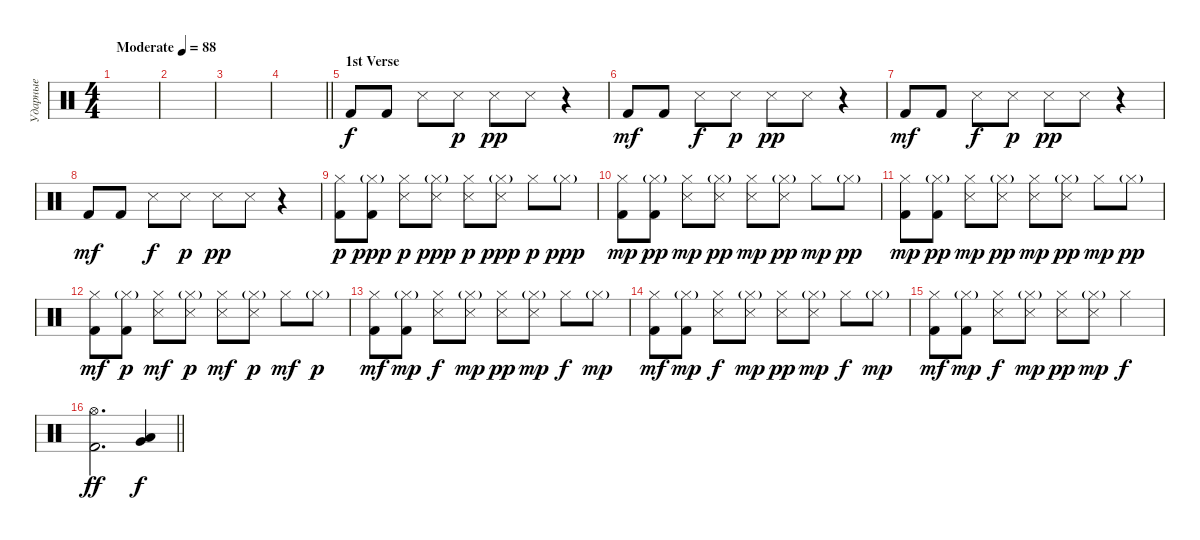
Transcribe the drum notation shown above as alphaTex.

\track ("Ударные" "Ударные") {instrument percussion}
\staff {score}
\articulation defaults
\ts (4 4)
\tempo (88 "Moderate")
\clef neutral
\ks c
|
|
|
\barLineRight lightlight
|
\section ("" "1st Verse")
"Kick (hit) 2".8 "Kick (hit) 2".8 "Snare (side stick) 3".8{dy f} "Snare (side stick) 3".8{dy p} "Snare (side stick) 3".8{dy pp} "Snare (side stick) 3".8 r.4 |
"Kick (hit) 2".8{dy mf} "Kick (hit) 2".8 "Snare (side stick) 3".8{dy f} "Snare (side stick) 3".8{dy p} "Snare (side stick) 3".8{dy pp} "Snare (side stick) 3".8 r.4 |
"Kick (hit) 2".8{dy mf} "Kick (hit) 2".8 "Snare (side stick) 3".8{dy f} "Snare (side stick) 3".8{dy p} "Snare (side stick) 3".8{dy pp} "Snare (side stick) 3".8 r.4 |
"Kick (hit) 2".8{dy mf} "Kick (hit) 2".8 "Snare (side stick) 3".8{dy f} "Snare (side stick) 3".8{dy p} "Snare (side stick) 3".8{dy pp} "Snare (side stick) 3".8 r.4 |
("Kick (hit) 2" "Hi-Hat (closed)").8{dy p} ("Kick (hit) 2" "Hi-Hat (closed)"{g}).8{dy ppp} ("Snare (side stick) 3" "Hi-Hat (closed)").8{dy p} ("Snare (side stick) 3" "Hi-Hat (closed)"{g}).8{dy ppp} ("Snare (side stick) 3" "Hi-Hat (closed)").8{dy p} ("Snare (side stick) 3" "Hi-Hat (closed)"{g}).8{dy ppp} "Hi-Hat (closed)".8{dy p} "Hi-Hat (closed)"{g}.8{dy ppp} |
("Kick (hit) 2" "Hi-Hat (closed)").8{dy mp} ("Kick (hit) 2" "Hi-Hat (closed)"{g}).8{dy pp} ("Snare (side stick) 3" "Hi-Hat (closed)").8{dy mp} ("Snare (side stick) 3" "Hi-Hat (closed)"{g}).8{dy pp} ("Snare (side stick) 3" "Hi-Hat (closed)").8{dy mp} ("Snare (side stick) 3" "Hi-Hat (closed)"{g}).8{dy pp} "Hi-Hat (closed)".8{dy mp} "Hi-Hat (closed)"{g}.8{dy pp} |
("Kick (hit) 2" "Hi-Hat (closed)").8{dy mp} ("Kick (hit) 2" "Hi-Hat (closed)"{g}).8{dy pp} ("Snare (side stick) 3" "Hi-Hat (closed)").8{dy mp} ("Snare (side stick) 3" "Hi-Hat (closed)"{g}).8{dy pp} ("Snare (side stick) 3" "Hi-Hat (closed)").8{dy mp} ("Snare (side stick) 3" "Hi-Hat (closed)"{g}).8{dy pp} "Hi-Hat (closed)".8{dy mp} "Hi-Hat (closed)"{g}.8{dy pp} |
("Kick (hit) 2" "Hi-Hat (closed)").8{dy mf} ("Kick (hit) 2" "Hi-Hat (closed)"{g}).8{dy p} ("Snare (side stick) 3" "Hi-Hat (closed)").8{dy mf} ("Snare (side stick) 3" "Hi-Hat (closed)"{g}).8{dy p} ("Snare (side stick) 3" "Hi-Hat (closed)").8{dy mf} ("Snare (side stick) 3" "Hi-Hat (closed)"{g}).8{dy p} "Hi-Hat (closed)".8{dy mf} "Hi-Hat (closed)"{g}.8{dy p} |
("Kick (hit) 2" "Hi-Hat (closed)").8{dy mf} ("Kick (hit) 2" "Hi-Hat (closed)"{g}).8{dy mp} ("Snare (side stick) 3" "Hi-Hat (closed)").8{dy f} ("Snare (side stick) 3" "Hi-Hat (closed)"{g}).8{dy mp} ("Snare (side stick) 3" "Hi-Hat (closed)").8{dy pp} ("Snare (side stick) 3" "Hi-Hat (closed)"{g}).8{dy mp} "Hi-Hat (closed)".8{dy f} "Hi-Hat (closed)"{g}.8{dy mp} |
("Kick (hit) 2" "Hi-Hat (closed)").8{dy mf} ("Kick (hit) 2" "Hi-Hat (closed)"{g}).8{dy mp} ("Snare (side stick) 3" "Hi-Hat (closed)").8{dy f} ("Snare (side stick) 3" "Hi-Hat (closed)"{g}).8{dy mp} ("Snare (side stick) 3" "Hi-Hat (closed)").8{dy pp} ("Snare (side stick) 3" "Hi-Hat (closed)"{g}).8{dy mp} "Hi-Hat (closed)".8{dy f} "Hi-Hat (closed)"{g}.8{dy mp} |
("Kick (hit) 2" "Hi-Hat (closed)").8{dy mf} ("Kick (hit) 2" "Hi-Hat (closed)"{g}).8{dy mp} ("Snare (side stick) 3" "Hi-Hat (closed)").8{dy f} ("Snare (side stick) 3" "Hi-Hat (closed)"{g}).8{dy mp} ("Snare (side stick) 3" "Hi-Hat (closed)").8{dy pp} ("Snare (side stick) 3" "Hi-Hat (closed)"{g}).8{dy mp} "Hi-Hat (closed)".4{dy f} |
\barLineRight lightlight
("Kick (hit) 2" "Hi-Hat (open)").2{d dy ff} ("Very Low Tom (hit)" "Low Tom (hit)").4{dy f}
